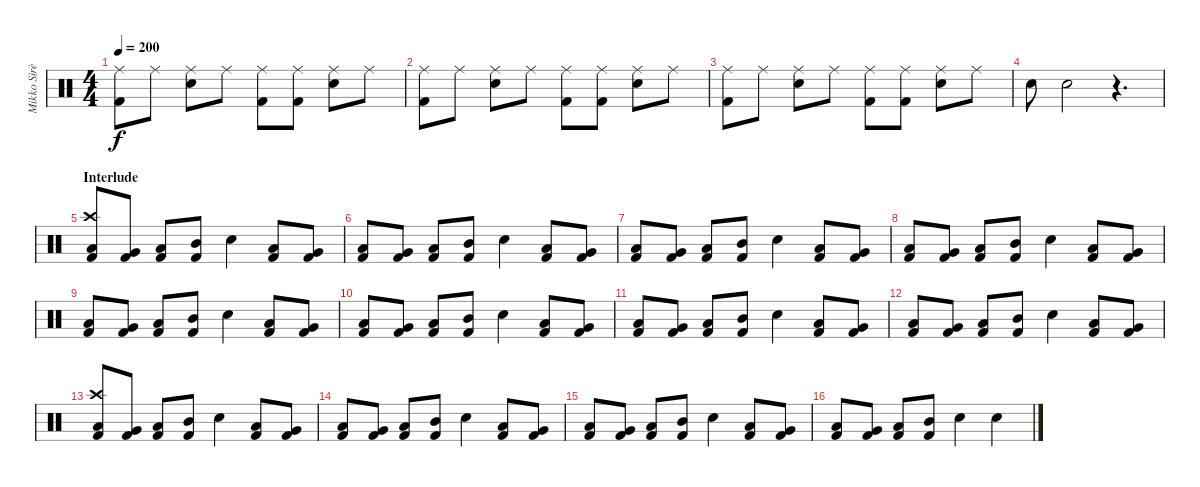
\track ("Mikko Sirèn" "Mikko Sirè") {instrument percussion}
\staff {score}
\articulation defaults
\ts (4 4)
\tempo 200
\clef neutral
\ks c
("Ride (middle)" "Kick (hit) 2").8{dy f} "Ride (middle)".8 ("Ride (middle)" "Electric Snare (hit)").8 "Ride (middle)".8 ("Ride (middle)" "Kick (hit) 2").8 ("Ride (middle)" "Kick (hit) 2").8 ("Ride (middle)" "Electric Snare (hit)").8 "Ride (middle)".8 |
("Ride (middle)" "Kick (hit) 2").8 "Ride (middle)".8 ("Ride (middle)" "Electric Snare (hit)").8 "Ride (middle)".8 ("Ride (middle)" "Kick (hit) 2").8 ("Ride (middle)" "Kick (hit) 2").8 ("Ride (middle)" "Electric Snare (hit)").8 "Ride (middle)".8 |
("Ride (middle)" "Kick (hit) 2").8 "Ride (middle)".8 ("Ride (middle)" "Electric Snare (hit)").8 "Ride (middle)".8 ("Ride (middle)" "Kick (hit) 2").8 ("Ride (middle)" "Kick (hit) 2").8 ("Ride (middle)" "Electric Snare (hit)").8 "Ride (middle)".8 |
"Electric Snare (hit)".8 "Electric Snare (hit)".2 r.4{d} |
\section ("" "Interlude")
("Crash high (hit)" "Low Floor Tom (hit)" "Kick (hit) 2").8 ("Very Low Tom (hit)" "Kick (hit) 2").8 ("Low Tom (hit)" "Kick (hit) 2").8 ("Mid Tom (hit)" "Kick (hit) 2").8 "Electric Snare (hit)".4 ("Low Floor Tom (hit)" "Kick (hit) 2").8 ("Very Low Tom (hit)" "Kick (hit) 2").8 |
("Low Floor Tom (hit)" "Kick (hit) 2").8 ("Very Low Tom (hit)" "Kick (hit) 2").8 ("Low Tom (hit)" "Kick (hit) 2").8 ("Mid Tom (hit)" "Kick (hit) 2").8 "Electric Snare (hit)".4 ("Low Floor Tom (hit)" "Kick (hit) 2").8 ("Very Low Tom (hit)" "Kick (hit) 2").8 |
("Low Floor Tom (hit)" "Kick (hit) 2").8 ("Very Low Tom (hit)" "Kick (hit) 2").8 ("Low Tom (hit)" "Kick (hit) 2").8 ("Mid Tom (hit)" "Kick (hit) 2").8 "Electric Snare (hit)".4 ("Low Floor Tom (hit)" "Kick (hit) 2").8 ("Very Low Tom (hit)" "Kick (hit) 2").8 |
("Low Floor Tom (hit)" "Kick (hit) 2").8 ("Very Low Tom (hit)" "Kick (hit) 2").8 ("Low Tom (hit)" "Kick (hit) 2").8 ("Mid Tom (hit)" "Kick (hit) 2").8 "Electric Snare (hit)".4 ("Low Floor Tom (hit)" "Kick (hit) 2").8 ("Very Low Tom (hit)" "Kick (hit) 2").8 |
("Low Floor Tom (hit)" "Kick (hit) 2").8 ("Very Low Tom (hit)" "Kick (hit) 2").8 ("Low Tom (hit)" "Kick (hit) 2").8 ("Mid Tom (hit)" "Kick (hit) 2").8 "Electric Snare (hit)".4 ("Low Floor Tom (hit)" "Kick (hit) 2").8 ("Very Low Tom (hit)" "Kick (hit) 2").8 |
("Low Floor Tom (hit)" "Kick (hit) 2").8 ("Very Low Tom (hit)" "Kick (hit) 2").8 ("Low Tom (hit)" "Kick (hit) 2").8 ("Mid Tom (hit)" "Kick (hit) 2").8 "Electric Snare (hit)".4 ("Low Floor Tom (hit)" "Kick (hit) 2").8 ("Very Low Tom (hit)" "Kick (hit) 2").8 |
("Low Floor Tom (hit)" "Kick (hit) 2").8 ("Very Low Tom (hit)" "Kick (hit) 2").8 ("Low Tom (hit)" "Kick (hit) 2").8 ("Mid Tom (hit)" "Kick (hit) 2").8 "Electric Snare (hit)".4 ("Low Floor Tom (hit)" "Kick (hit) 2").8 ("Very Low Tom (hit)" "Kick (hit) 2").8 |
("Low Floor Tom (hit)" "Kick (hit) 2").8 ("Very Low Tom (hit)" "Kick (hit) 2").8 ("Low Tom (hit)" "Kick (hit) 2").8 ("Mid Tom (hit)" "Kick (hit) 2").8 "Electric Snare (hit)".4 ("Low Floor Tom (hit)" "Kick (hit) 2").8 ("Very Low Tom (hit)" "Kick (hit) 2").8 |
("Crash high (hit)" "Low Floor Tom (hit)" "Kick (hit) 2").8 ("Very Low Tom (hit)" "Kick (hit) 2").8 ("Low Tom (hit)" "Kick (hit) 2").8 ("Mid Tom (hit)" "Kick (hit) 2").8 "Electric Snare (hit)".4 ("Low Floor Tom (hit)" "Kick (hit) 2").8 ("Very Low Tom (hit)" "Kick (hit) 2").8 |
("Low Floor Tom (hit)" "Kick (hit) 2").8 ("Very Low Tom (hit)" "Kick (hit) 2").8 ("Low Tom (hit)" "Kick (hit) 2").8 ("Mid Tom (hit)" "Kick (hit) 2").8 "Electric Snare (hit)".4 ("Low Floor Tom (hit)" "Kick (hit) 2").8 ("Very Low Tom (hit)" "Kick (hit) 2").8 |
("Low Floor Tom (hit)" "Kick (hit) 2").8 ("Very Low Tom (hit)" "Kick (hit) 2").8 ("Low Tom (hit)" "Kick (hit) 2").8 ("Mid Tom (hit)" "Kick (hit) 2").8 "Electric Snare (hit)".4 ("Low Floor Tom (hit)" "Kick (hit) 2").8 ("Very Low Tom (hit)" "Kick (hit) 2").8 |
("Low Floor Tom (hit)" "Kick (hit) 2").8 ("Very Low Tom (hit)" "Kick (hit) 2").8 ("Low Tom (hit)" "Kick (hit) 2").8 ("Mid Tom (hit)" "Kick (hit) 2").8 "Electric Snare (hit)".4 "Electric Snare (hit)".4
